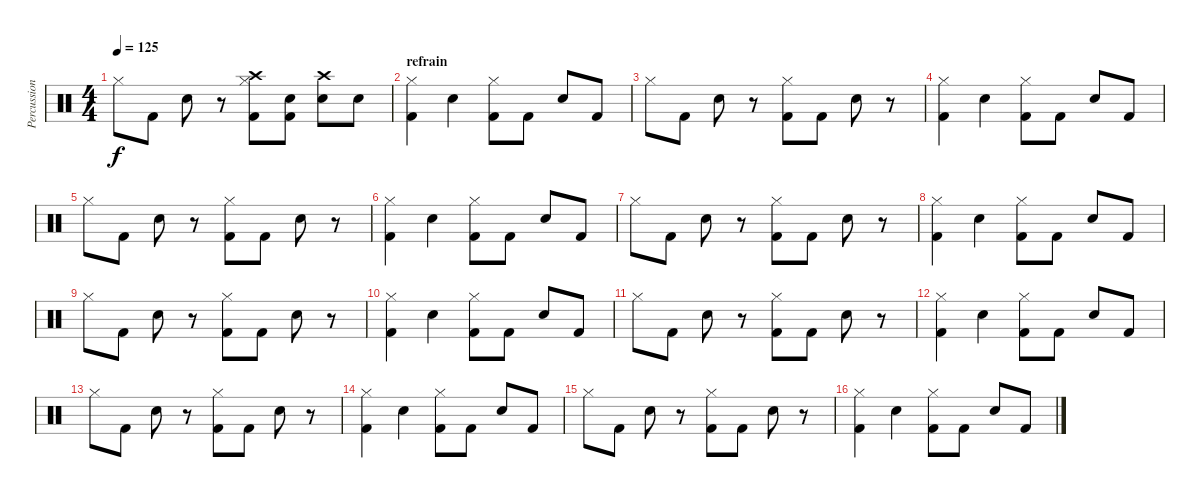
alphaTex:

\track ("Percussions" "Percussion") {instrument percussion}
\staff {score}
\articulation defaults
\ts (4 4)
\tempo 125
\clef neutral
\ks c "Hi-Hat (closed)".8{dy f} "Kick (hit) 2".8 "Snare (hit) 2".8
r.8 ("Crash high (hit)" "Hi-Hat (closed)" "Kick (hit) 2").8 ("Snare (hit) 2" "Kick (hit) 2").8 ("Crash high (hit)" "Snare (hit) 2").8 "Snare (hit) 2".8 |
\section ("" "refrain")
("Hi-Hat (closed)" "Kick (hit) 2").4 "Snare (hit) 2".4 ("Hi-Hat (closed)" "Kick (hit) 2").8 "Kick (hit) 2".8 "Snare (hit) 2".8 "Kick (hit) 2".8 |
"Hi-Hat (closed)".8 "Kick (hit) 2".8 "Snare (hit) 2".8 r.8 ("Hi-Hat (closed)" "Kick (hit) 2").8 "Kick (hit) 2".8 "Snare (hit) 2".8 r.8 |
("Hi-Hat (closed)" "Kick (hit) 2").4 "Snare (hit) 2".4 ("Hi-Hat (closed)" "Kick (hit) 2").8 "Kick (hit) 2".8 "Snare (hit) 2".8 "Kick (hit) 2".8 |
"Hi-Hat (closed)".8 "Kick (hit) 2".8 "Snare (hit) 2".8 r.8 ("Hi-Hat (closed)" "Kick (hit) 2").8 "Kick (hit) 2".8 "Snare (hit) 2".8 r.8 |
("Hi-Hat (closed)" "Kick (hit) 2").4 "Snare (hit) 2".4 ("Hi-Hat (closed)" "Kick (hit) 2").8 "Kick (hit) 2".8 "Snare (hit) 2".8 "Kick (hit) 2".8 |
"Hi-Hat (closed)".8 "Kick (hit) 2".8 "Snare (hit) 2".8 r.8 ("Hi-Hat (closed)" "Kick (hit) 2").8 "Kick (hit) 2".8 "Snare (hit) 2".8 r.8 |
("Hi-Hat (closed)" "Kick (hit) 2").4 "Snare (hit) 2".4 ("Hi-Hat (closed)" "Kick (hit) 2").8 "Kick (hit) 2".8 "Snare (hit) 2".8 "Kick (hit) 2".8 |
"Hi-Hat (closed)".8 "Kick (hit) 2".8 "Snare (hit) 2".8 r.8 ("Hi-Hat (closed)" "Kick (hit) 2").8 "Kick (hit) 2".8 "Snare (hit) 2".8 r.8 |
("Hi-Hat (closed)" "Kick (hit) 2").4 "Snare (hit) 2".4 ("Hi-Hat (closed)" "Kick (hit) 2").8 "Kick (hit) 2".8 "Snare (hit) 2".8 "Kick (hit) 2".8 |
"Hi-Hat (closed)".8 "Kick (hit) 2".8 "Snare (hit) 2".8 r.8 ("Hi-Hat (closed)" "Kick (hit) 2").8 "Kick (hit) 2".8 "Snare (hit) 2".8 r.8 |
("Hi-Hat (closed)" "Kick (hit) 2").4 "Snare (hit) 2".4 ("Hi-Hat (closed)" "Kick (hit) 2").8 "Kick (hit) 2".8 "Snare (hit) 2".8 "Kick (hit) 2".8 |
"Hi-Hat (closed)".8 "Kick (hit) 2".8 "Snare (hit) 2".8 r.8 ("Hi-Hat (closed)" "Kick (hit) 2").8 "Kick (hit) 2".8 "Snare (hit) 2".8 r.8 |
("Hi-Hat (closed)" "Kick (hit) 2").4 "Snare (hit) 2".4 ("Hi-Hat (closed)" "Kick (hit) 2").8 "Kick (hit) 2".8 "Snare (hit) 2".8 "Kick (hit) 2".8 |
"Hi-Hat (closed)".8 "Kick (hit) 2".8 "Snare (hit) 2".8 r.8 ("Hi-Hat (closed)" "Kick (hit) 2").8 "Kick (hit) 2".8 "Snare (hit) 2".8 r.8 |
("Hi-Hat (closed)" "Kick (hit) 2").4 "Snare (hit) 2".4 ("Hi-Hat (closed)" "Kick (hit) 2").8 "Kick (hit) 2".8 "Snare (hit) 2".8 "Kick (hit) 2".8
